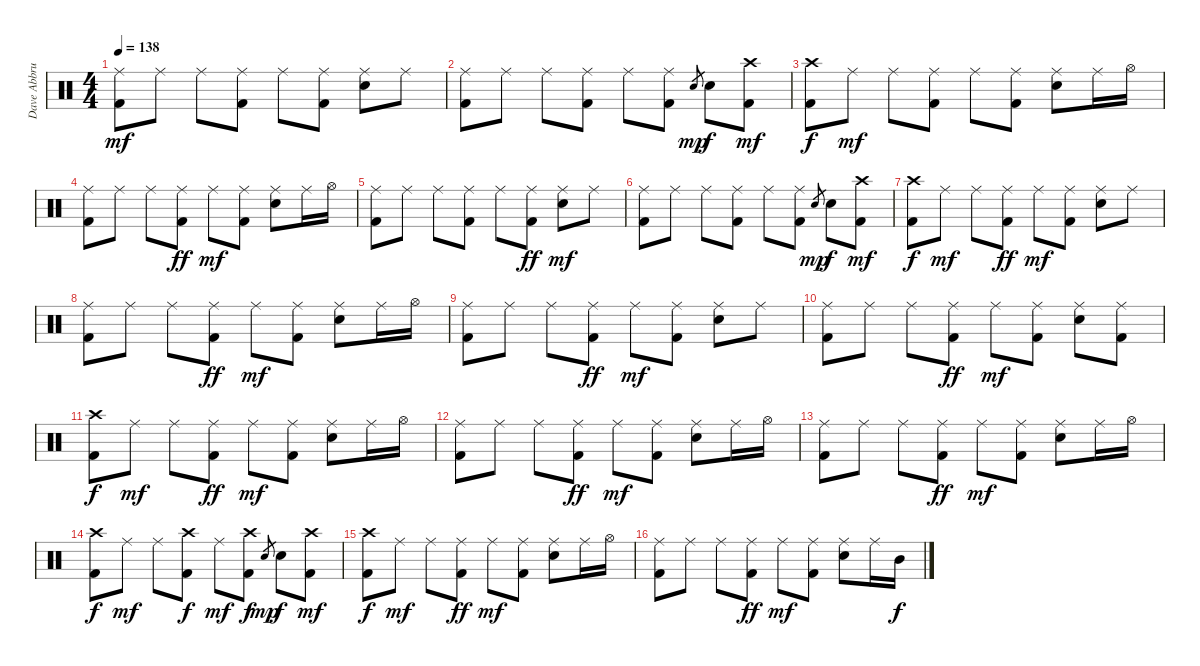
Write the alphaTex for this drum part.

\track ("Dave Abbruze - Drums" "Dave Abbru") {instrument percussion}
\staff {score}
\articulation defaults
\ts (4 4)
\tempo 138
\clef neutral
\ks c
("Ride (middle)" "Kick (hit) 2").8{dy mf} "Ride (middle)".8 "Ride (middle)".8 ("Ride (middle)" "Kick (hit) 2").8 "Ride (middle)".8 ("Ride (middle)" "Kick (hit) 2").8 ("Ride (middle)" "Electric Snare (hit)").8 "Ride (middle)".8 |
("Ride (middle)" "Kick (hit) 2").8 "Ride (middle)".8 "Ride (middle)".8 ("Ride (middle)" "Kick (hit) 2").8 "Ride (middle)".8 ("Ride (middle)" "Kick (hit) 2").8 "Electric Snare (hit)".8{gr dy mp} "Electric Snare (hit)".8{dy f} ("Crash high (hit)" "Kick (hit) 2").8{dy mf} |
("Crash high (hit)" "Kick (hit) 2").8{dy f} "Ride (middle)".8{dy mf} "Ride (middle)".8 ("Ride (middle)" "Kick (hit) 2").8 "Ride (middle)".8 ("Ride (middle)" "Kick (hit) 2").8 ("Ride (middle)" "Electric Snare (hit)").8 "Ride (middle)".16 "Hi-Hat (open)".16 |
("Ride (middle)" "Kick (hit) 2").8 "Ride (middle)".8 "Ride (middle)".8 ("Ride (middle)" "Kick (hit) 2").8{dy ff} "Ride (middle)".8{dy mf} ("Ride (middle)" "Kick (hit) 2").8 ("Ride (middle)" "Electric Snare (hit)").8 "Ride (middle)".16 "Hi-Hat (open)".16 |
("Ride (middle)" "Kick (hit) 2").8 "Ride (middle)".8 "Ride (middle)".8 ("Ride (middle)" "Kick (hit) 2").8 "Ride (middle)".8 ("Ride (middle)" "Kick (hit) 2").8{dy ff} ("Ride (middle)" "Electric Snare (hit)").8{dy mf} "Ride (middle)".8 |
("Ride (middle)" "Kick (hit) 2").8 "Ride (middle)".8 "Ride (middle)".8 ("Ride (middle)" "Kick (hit) 2").8 "Ride (middle)".8 ("Ride (middle)" "Kick (hit) 2").8 "Electric Snare (hit)".8{gr dy mp} "Electric Snare (hit)".8{dy f} ("Crash high (hit)" "Kick (hit) 2").8{dy mf} |
("Crash high (hit)" "Kick (hit) 2").8{dy f} "Ride (middle)".8{dy mf} "Ride (middle)".8 ("Ride (middle)" "Kick (hit) 2").8{dy ff} "Ride (middle)".8{dy mf} ("Ride (middle)" "Kick (hit) 2").8 ("Ride (middle)" "Electric Snare (hit)").8 "Ride (middle)".8 |
("Ride (middle)" "Kick (hit) 2").8 "Ride (middle)".8 "Ride (middle)".8 ("Ride (middle)" "Kick (hit) 2").8{dy ff} "Ride (middle)".8{dy mf} ("Ride (middle)" "Kick (hit) 2").8 ("Ride (middle)" "Electric Snare (hit)").8 "Ride (middle)".16 "Hi-Hat (open)".16 |
("Ride (middle)" "Kick (hit) 2").8 "Ride (middle)".8 "Ride (middle)".8 ("Ride (middle)" "Kick (hit) 2").8{dy ff} "Ride (middle)".8{dy mf} ("Ride (middle)" "Kick (hit) 2").8 ("Ride (middle)" "Electric Snare (hit)").8 "Ride (middle)".8 |
("Ride (middle)" "Kick (hit) 2").8 "Ride (middle)".8 "Ride (middle)".8 ("Ride (middle)" "Kick (hit) 2").8{dy ff} "Ride (middle)".8{dy mf} ("Ride (middle)" "Kick (hit) 2").8 ("Ride (middle)" "Electric Snare (hit)").8 ("Ride (middle)" "Kick (hit) 2").8 |
("Crash high (hit)" "Kick (hit) 2").8{dy f} "Ride (middle)".8{dy mf} "Ride (middle)".8 ("Ride (middle)" "Kick (hit) 2").8{dy ff} "Ride (middle)".8{dy mf} ("Ride (middle)" "Kick (hit) 2").8 ("Ride (middle)" "Electric Snare (hit)").8 "Ride (middle)".16 "Hi-Hat (open)".16 |
("Ride (middle)" "Kick (hit) 2").8 "Ride (middle)".8 "Ride (middle)".8 ("Ride (middle)" "Kick (hit) 2").8{dy ff} "Ride (middle)".8{dy mf} ("Ride (middle)" "Kick (hit) 2").8 ("Ride (middle)" "Electric Snare (hit)").8 "Ride (middle)".16 "Hi-Hat (open)".16 |
("Ride (middle)" "Kick (hit) 2").8 "Ride (middle)".8 "Ride (middle)".8 ("Ride (middle)" "Kick (hit) 2").8{dy ff} "Ride (middle)".8{dy mf} ("Ride (middle)" "Kick (hit) 2").8 ("Ride (middle)" "Electric Snare (hit)").8 "Ride (middle)".16 "Hi-Hat (open)".16 |
("Crash high (hit)" "Kick (hit) 2").8{dy f} "Ride (middle)".8{dy mf} "Ride (middle)".8 ("Crash high (hit)" "Kick (hit) 2").8{dy f} "Ride (middle)".8{dy mf} ("Crash high (hit)" "Kick (hit) 2").8{dy f} "Electric Snare (hit)".8{gr dy mp} "Electric Snare (hit)".8{dy f} ("Crash high (hit)" "Kick (hit) 2").8{dy mf} |
("Crash high (hit)" "Kick (hit) 2").8{dy f} "Ride (middle)".8{dy mf} "Ride (middle)".8 ("Ride (middle)" "Kick (hit) 2").8{dy ff} "Ride (middle)".8{dy mf} ("Ride (middle)" "Kick (hit) 2").8 ("Ride (middle)" "Electric Snare (hit)").8 "Ride (middle)".16 "Hi-Hat (open)".16 |
("Ride (middle)" "Kick (hit) 2").8 "Ride (middle)".8 "Ride (middle)".8 ("Ride (middle)" "Kick (hit) 2").8{dy ff} "Ride (middle)".8{dy mf} ("Ride (middle)" "Kick (hit) 2").8 ("Ride (middle)" "Electric Snare (hit)").8 "Ride (middle)".16 "Mid Tom (hit)".16{dy f}
